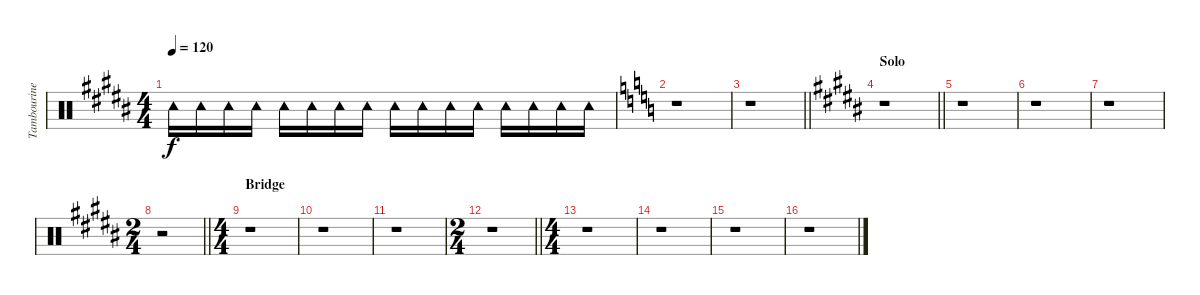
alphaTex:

\track ("Tambourine" "Tambourine") {instrument percussion}
\staff {score}
\articulation defaults
\ts (4 4)
\tempo 120
\clef neutral
\ks b "Tambourine (hit)".16{dy f} "Tambourine (hit)".16 "Tambourine (hit)".16 "Tambourine (hit)".16 "Tambourine (hit)".16 "Tambourine (hit)".16 "Tambourine (hit)".16 "Tambourine (hit)".16 "Tambourine (hit)".16 "Tambourine (hit)".16 "Tambourine (hit)".16 "Tambourine (hit)".16 "Tambourine (hit)".16 "Tambourine (hit)".16 "Tambourine (hit)".16 "Tambourine (hit)".16
|
\ks c
r.1 |
\barLineRight lightlight
r.1 |
\section ("" "Solo")
\barLineRight lightlight
\ks b
r.1 |
r.1 |
r.1 |
r.1 |
\ts (2 4)
\barLineRight lightlight
r.2 |
\ts (4 4)
\section ("" "Bridge")
r.1 |
r.1 |
r.1 |
\ts (2 4)
\barLineRight lightlight
r.1 |
\ts (4 4)
r.1 |
r.1 |
r.1 |
r.1
